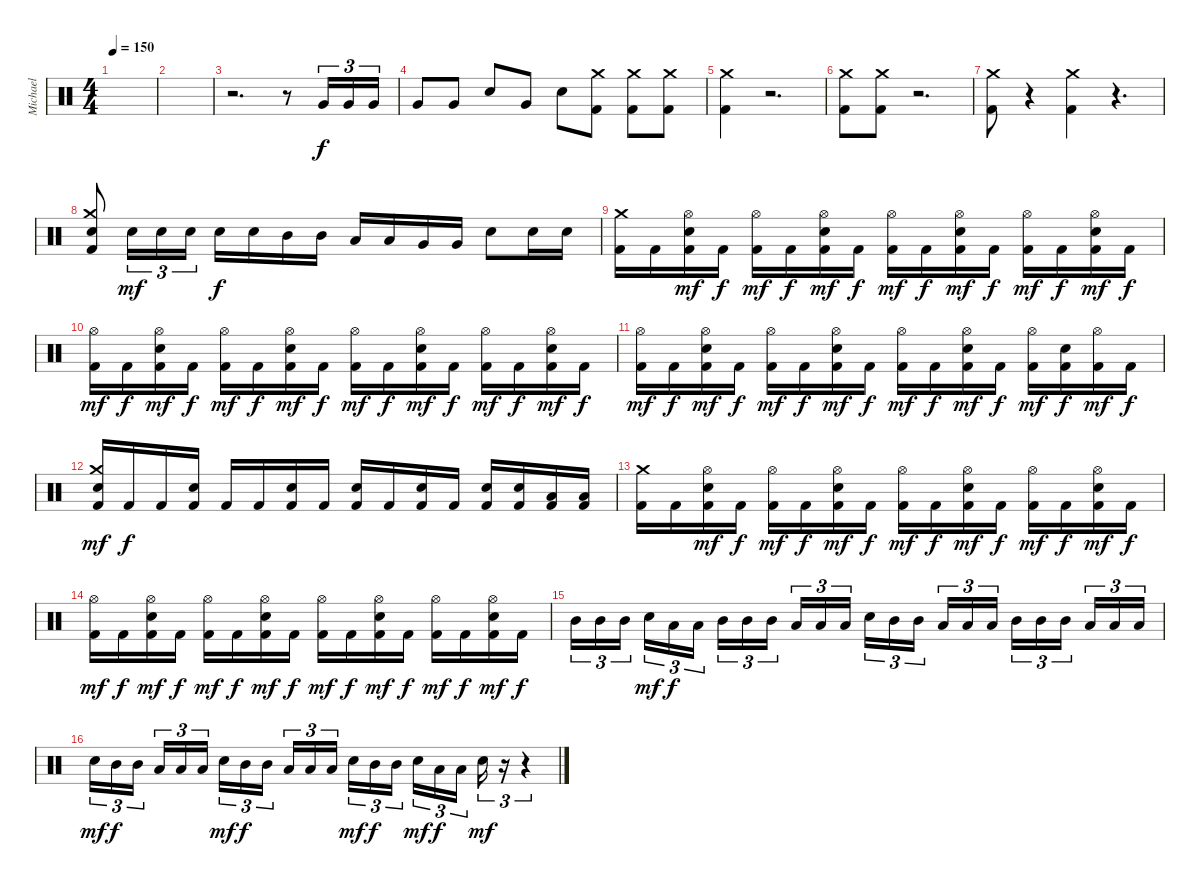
\track ("Michael" "Michael") {instrument percussion}
\staff {score}
\articulation defaults
\ts (4 4)
\tempo 150
\clef neutral
\ks c
|
|
r.2{d} r.8 "Very Low Tom (hit)".16{tu (3 2)} "Very Low Tom (hit)".16{tu (3 2)} "Very Low Tom (hit)".16{tu (3 2)} |
"Very Low Tom (hit)".8 "Very Low Tom (hit)".8 "Electric Snare (hit)".8 "Very Low Tom (hit)".8 "Electric Snare (hit)".8 ("Crash medium (hit)" "Kick (hit) 2").8 ("Crash medium (hit)" "Kick (hit) 2").8 ("Crash medium (hit)" "Kick (hit) 2").8 |
("Crash medium (hit)" "Kick (hit) 2").4 r.2{d} |
("Crash medium (hit)" "Kick (hit) 2").8 ("Crash medium (hit)" "Kick (hit) 2").8 r.2{d} |
("Crash medium (hit)" "Kick (hit) 2").8 r.4 ("Crash medium (hit)" "Kick (hit) 2").4 r.4{d} |
("Crash medium (hit)" "Electric Snare (hit)" "Kick (hit) 2").8 "Electric Snare (hit)".16{tu (3 2) dy mf} "Electric Snare (hit)".16{tu (3 2)} "Electric Snare (hit)".16{tu (3 2)} "Electric Snare (hit)".16{dy f} "Electric Snare (hit)".16 "Mid Tom (hit)".16 "Mid Tom (hit)".16 "Low Tom (hit)".16 "Low Tom (hit)".16 "Very Low Tom (hit)".16 "Very Low Tom (hit)".16 "Electric Snare (hit)".8 "Electric Snare (hit)".16 "Electric Snare (hit)".16 |
("Crash medium (hit)" "Kick (hit) 2").16 "Kick (hit) 2".16 ("Hi-Hat (open)" "Electric Snare (hit)" "Kick (hit) 2").16{dy mf} "Kick (hit) 2".16{dy f} ("Hi-Hat (open)" "Kick (hit) 2").16{dy mf} "Kick (hit) 2".16{dy f} ("Hi-Hat (open)" "Electric Snare (hit)" "Kick (hit) 2").16{dy mf} "Kick (hit) 2".16{dy f} ("Hi-Hat (open)" "Kick (hit) 2").16{dy mf} "Kick (hit) 2".16{dy f} ("Hi-Hat (open)" "Electric Snare (hit)" "Kick (hit) 2").16{dy mf} "Kick (hit) 2".16{dy f} ("Hi-Hat (open)" "Kick (hit) 2").16{dy mf} "Kick (hit) 2".16{dy f} ("Hi-Hat (open)" "Electric Snare (hit)" "Kick (hit) 2").16{dy mf} "Kick (hit) 2".16{dy f} |
("Hi-Hat (open)" "Kick (hit) 2").16{dy mf} "Kick (hit) 2".16{dy f} ("Hi-Hat (open)" "Electric Snare (hit)" "Kick (hit) 2").16{dy mf} "Kick (hit) 2".16{dy f} ("Hi-Hat (open)" "Kick (hit) 2").16{dy mf} "Kick (hit) 2".16{dy f} ("Hi-Hat (open)" "Electric Snare (hit)" "Kick (hit) 2").16{dy mf} "Kick (hit) 2".16{dy f} ("Hi-Hat (open)" "Kick (hit) 2").16{dy mf} "Kick (hit) 2".16{dy f} ("Hi-Hat (open)" "Electric Snare (hit)" "Kick (hit) 2").16{dy mf} "Kick (hit) 2".16{dy f} ("Hi-Hat (open)" "Kick (hit) 2").16{dy mf} "Kick (hit) 2".16{dy f} ("Hi-Hat (open)" "Electric Snare (hit)" "Kick (hit) 2").16{dy mf} "Kick (hit) 2".16{dy f} |
("Hi-Hat (open)" "Kick (hit) 2").16{dy mf} "Kick (hit) 2".16{dy f} ("Hi-Hat (open)" "Electric Snare (hit)" "Kick (hit) 2").16{dy mf} "Kick (hit) 2".16{dy f} ("Hi-Hat (open)" "Kick (hit) 2").16{dy mf} "Kick (hit) 2".16{dy f} ("Hi-Hat (open)" "Electric Snare (hit)" "Kick (hit) 2").16{dy mf} "Kick (hit) 2".16{dy f} ("Hi-Hat (open)" "Kick (hit) 2").16{dy mf} "Kick (hit) 2".16{dy f} ("Hi-Hat (open)" "Electric Snare (hit)" "Kick (hit) 2").16{dy mf} "Kick (hit) 2".16{dy f} ("Hi-Hat (open)" "Kick (hit) 2").16{dy mf} ("Electric Snare (hit)" "Kick (hit) 2").16{dy f} ("Hi-Hat (open)" "Kick (hit) 2").16{dy mf} "Kick (hit) 2".16{dy f} |
("Crash medium (hit)" "Electric Snare (hit)" "Kick (hit) 2").16{dy mf} "Kick (hit) 2".16{dy f} "Kick (hit) 2".16 ("Electric Snare (hit)" "Kick (hit) 2").16 "Kick (hit) 2".16 "Kick (hit) 2".16 ("Electric Snare (hit)" "Kick (hit) 2").16 "Kick (hit) 2".16 ("Electric Snare (hit)" "Kick (hit) 2").16 "Kick (hit) 2".16 ("Electric Snare (hit)" "Kick (hit) 2").16 "Kick (hit) 2".16 ("Electric Snare (hit)" "Kick (hit) 2").16 ("Electric Snare (hit)" "Kick (hit) 2").16 ("Low Tom (hit)" "Kick (hit) 2").16 ("Low Tom (hit)" "Kick (hit) 2").16 |
("Crash medium (hit)" "Kick (hit) 2").16 "Kick (hit) 2".16 ("Hi-Hat (open)" "Electric Snare (hit)" "Kick (hit) 2").16{dy mf} "Kick (hit) 2".16{dy f} ("Hi-Hat (open)" "Kick (hit) 2").16{dy mf} "Kick (hit) 2".16{dy f} ("Hi-Hat (open)" "Electric Snare (hit)" "Kick (hit) 2").16{dy mf} "Kick (hit) 2".16{dy f} ("Hi-Hat (open)" "Kick (hit) 2").16{dy mf} "Kick (hit) 2".16{dy f} ("Hi-Hat (open)" "Electric Snare (hit)" "Kick (hit) 2").16{dy mf} "Kick (hit) 2".16{dy f} ("Hi-Hat (open)" "Kick (hit) 2").16{dy mf} "Kick (hit) 2".16{dy f} ("Hi-Hat (open)" "Electric Snare (hit)" "Kick (hit) 2").16{dy mf} "Kick (hit) 2".16{dy f} |
("Hi-Hat (open)" "Kick (hit) 2").16{dy mf} "Kick (hit) 2".16{dy f} ("Hi-Hat (open)" "Electric Snare (hit)" "Kick (hit) 2").16{dy mf} "Kick (hit) 2".16{dy f} ("Hi-Hat (open)" "Kick (hit) 2").16{dy mf} "Kick (hit) 2".16{dy f} ("Hi-Hat (open)" "Electric Snare (hit)" "Kick (hit) 2").16{dy mf} "Kick (hit) 2".16{dy f} ("Hi-Hat (open)" "Kick (hit) 2").16{dy mf} "Kick (hit) 2".16{dy f} ("Hi-Hat (open)" "Electric Snare (hit)" "Kick (hit) 2").16{dy mf} "Kick (hit) 2".16{dy f} ("Hi-Hat (open)" "Kick (hit) 2").16{dy mf} "Kick (hit) 2".16{dy f} ("Hi-Hat (open)" "Electric Snare (hit)" "Kick (hit) 2").16{dy mf} "Kick (hit) 2".16{dy f} |
"Mid Tom (hit)".16{tu (3 2)} "Mid Tom (hit)".16{tu (3 2)} "Mid Tom (hit)".16{tu (3 2)} "Electric Snare (hit)".16{tu (3 2) dy mf} "Low Tom (hit)".16{tu (3 2) dy f} "Low Tom (hit)".16{tu (3 2)} "Mid Tom (hit)".16{tu (3 2)} "Mid Tom (hit)".16{tu (3 2)} "Mid Tom (hit)".16{tu (3 2)} "Low Tom (hit)".16{tu (3 2)} "Low Tom (hit)".16{tu (3 2)} "Low Tom (hit)".16{tu (3 2)} "Electric Snare (hit)".16{tu (3 2)} "Mid Tom (hit)".16{tu (3 2)} "Mid Tom (hit)".16{tu (3 2)} "Low Tom (hit)".16{tu (3 2)} "Low Tom (hit)".16{tu (3 2)} "Low Tom (hit)".16{tu (3 2)} "Mid Tom (hit)".16{tu (3 2)} "Mid Tom (hit)".16{tu (3 2)} "Mid Tom (hit)".16{tu (3 2)} "Low Tom (hit)".16{tu (3 2)} "Low Tom (hit)".16{tu (3 2)} "Low Tom (hit)".16{tu (3 2)} |
"Electric Snare (hit)".16{tu (3 2) dy mf} "Mid Tom (hit)".16{tu (3 2) dy f} "Mid Tom (hit)".16{tu (3 2)} "Low Tom (hit)".16{tu (3 2)} "Low Tom (hit)".16{tu (3 2)} "Low Tom (hit)".16{tu (3 2)} "Electric Snare (hit)".16{tu (3 2) dy mf} "Mid Tom (hit)".16{tu (3 2) dy f} "Mid Tom (hit)".16{tu (3 2)} "Low Tom (hit)".16{tu (3 2)} "Low Tom (hit)".16{tu (3 2)} "Low Tom (hit)".16{tu (3 2)} "Electric Snare (hit)".16{tu (3 2) dy mf} "Mid Tom (hit)".16{tu (3 2) dy f} "Mid Tom (hit)".16{tu (3 2)} "Electric Snare (hit)".16{tu (3 2) dy mf} "Low Tom (hit)".16{tu (3 2) dy f} "Low Tom (hit)".16{tu (3 2)} "Electric Snare (hit)".16{tu (3 2) dy mf} r.16{tu (3 2)} r.4{tu (3 2)}
